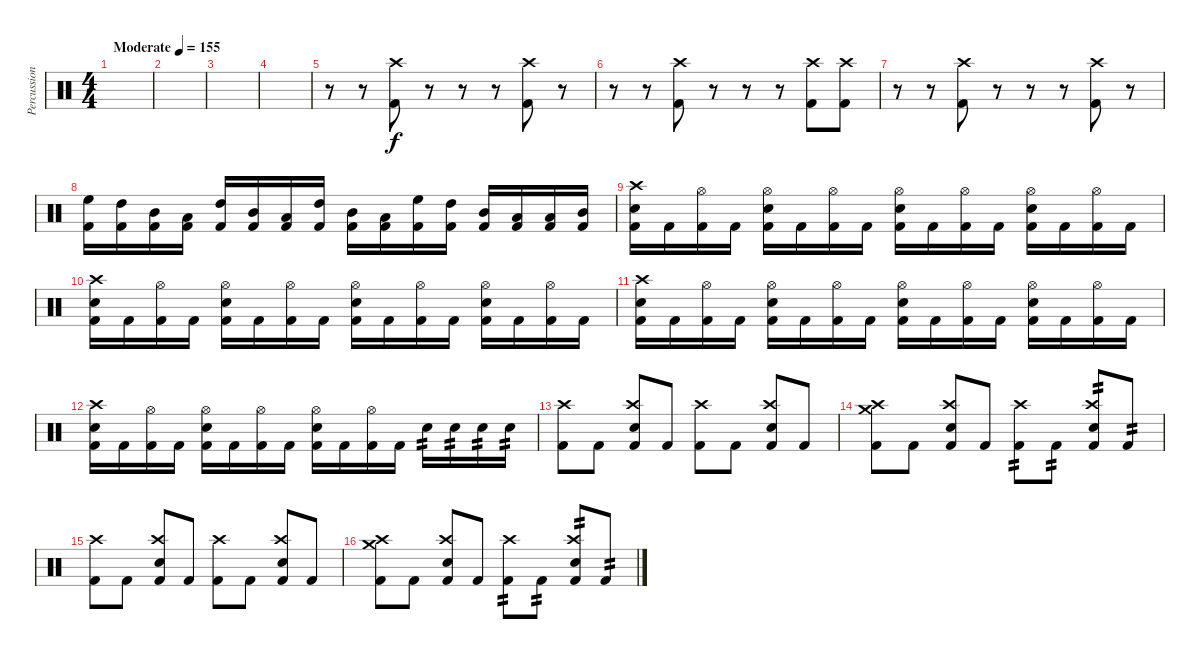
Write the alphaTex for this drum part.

\track ("Percussion" "Percussion") {instrument percussion}
\staff {score}
\articulation defaults
\ts (4 4)
\tempo (155 "Moderate")
\clef neutral
\ks c
|
|
|
|
r.8 r.8 ("Kick (hit) 2" "Crash high (hit)").8 r.8 r.8 r.8 ("Kick (hit) 2" "Crash high (hit)").8 r.8 |
r.8 r.8 ("Kick (hit) 2" "Crash high (hit)").8 r.8 r.8 r.8 ("Kick (hit) 2" "Crash high (hit)").8 ("Kick (hit) 2" "Crash high (hit)").8 |
r.8 r.8 ("Kick (hit) 2" "Crash high (hit)").8 r.8 r.8 r.8 ("Kick (hit) 2" "Crash high (hit)").8 r.8 |
("Kick (hit) 2" "High Floor Tom (hit)").16 ("Kick (hit) 2" "High Tom (hit)").16 ("Kick (hit) 2" "Mid Tom (hit)").16 ("Kick (hit) 2" "Low Tom (hit)").16 ("Kick (hit) 2" "High Tom (hit)").16 ("Kick (hit) 2" "Mid Tom (hit)").16 ("Kick (hit) 2" "Low Tom (hit)").16 ("Kick (hit) 2" "High Tom (hit)").16 ("Kick (hit) 2" "Mid Tom (hit)").16 ("Kick (hit) 2" "Low Tom (hit)").16 ("Kick (hit) 2" "High Floor Tom (hit)").16 ("Kick (hit) 2" "High Tom (hit)").16 ("Kick (hit) 2" "Mid Tom (hit)").16 ("Kick (hit) 2" "Low Tom (hit)").16 ("Kick (hit) 2" "Low Tom (hit)").16 ("Kick (hit) 2" "Mid Tom (hit)").16 |
("Kick (hit) 2" "Electric Snare (hit)" "Crash high (hit)").16 "Kick (hit) 2".16 ("Kick (hit) 2" "Hi-Hat (open)").16 "Kick (hit) 2".16 ("Kick (hit) 2" "Electric Snare (hit)" "Hi-Hat (open)").16 "Kick (hit) 2".16 ("Kick (hit) 2" "Hi-Hat (open)").16 "Kick (hit) 2".16 ("Kick (hit) 2" "Electric Snare (hit)" "Hi-Hat (open)").16 "Kick (hit) 2".16 ("Kick (hit) 2" "Hi-Hat (open)").16 "Kick (hit) 2".16 ("Kick (hit) 2" "Electric Snare (hit)" "Hi-Hat (open)").16 "Kick (hit) 2".16 ("Kick (hit) 2" "Hi-Hat (open)").16 "Kick (hit) 2".16 |
("Kick (hit) 2" "Electric Snare (hit)" "Crash high (hit)").16 "Kick (hit) 2".16 ("Kick (hit) 2" "Hi-Hat (open)").16 "Kick (hit) 2".16 ("Kick (hit) 2" "Electric Snare (hit)" "Hi-Hat (open)").16 "Kick (hit) 2".16 ("Kick (hit) 2" "Hi-Hat (open)").16 "Kick (hit) 2".16 ("Kick (hit) 2" "Electric Snare (hit)" "Hi-Hat (open)").16 "Kick (hit) 2".16 ("Kick (hit) 2" "Hi-Hat (open)").16 "Kick (hit) 2".16 ("Kick (hit) 2" "Electric Snare (hit)" "Hi-Hat (open)").16 "Kick (hit) 2".16 ("Kick (hit) 2" "Hi-Hat (open)").16 "Kick (hit) 2".16 |
("Kick (hit) 2" "Electric Snare (hit)" "Crash high (hit)").16 "Kick (hit) 2".16 ("Kick (hit) 2" "Hi-Hat (open)").16 "Kick (hit) 2".16 ("Kick (hit) 2" "Electric Snare (hit)" "Hi-Hat (open)").16 "Kick (hit) 2".16 ("Kick (hit) 2" "Hi-Hat (open)").16 "Kick (hit) 2".16 ("Kick (hit) 2" "Electric Snare (hit)" "Hi-Hat (open)").16 "Kick (hit) 2".16 ("Kick (hit) 2" "Hi-Hat (open)").16 "Kick (hit) 2".16 ("Kick (hit) 2" "Electric Snare (hit)" "Hi-Hat (open)").16 "Kick (hit) 2".16 ("Kick (hit) 2" "Hi-Hat (open)").16 "Kick (hit) 2".16 |
("Kick (hit) 2" "Electric Snare (hit)" "Crash high (hit)").16 "Kick (hit) 2".16 ("Kick (hit) 2" "Hi-Hat (open)").16 "Kick (hit) 2".16 ("Kick (hit) 2" "Electric Snare (hit)" "Hi-Hat (open)").16 "Kick (hit) 2".16 ("Kick (hit) 2" "Hi-Hat (open)").16 "Kick (hit) 2".16 ("Kick (hit) 2" "Electric Snare (hit)" "Hi-Hat (open)").16 "Kick (hit) 2".16 ("Kick (hit) 2" "Hi-Hat (open)").16 "Kick (hit) 2".16 "Electric Snare (hit)".16{tp 2} "Electric Snare (hit)".16{tp 2} "Electric Snare (hit)".16{tp 2} "Electric Snare (hit)".16{tp 2} |
("Crash high (hit)" "Kick (hit) 2").8 "Kick (hit) 2".8 ("Crash high (hit)" "Electric Snare (hit)" "Kick (hit) 2").8 "Kick (hit) 2".8 ("Crash high (hit)" "Kick (hit) 2").8 "Kick (hit) 2".8 ("Crash high (hit)" "Electric Snare (hit)" "Kick (hit) 2").8 "Kick (hit) 2".8 |
("Crash medium (hit)" "Kick (hit) 2" "Crash high (hit)").8 "Kick (hit) 2".8 ("Kick (hit) 2" "Electric Snare (hit)" "Crash high (hit)").8 "Kick (hit) 2".8 ("Kick (hit) 2" "Crash high (hit)").8{tp 2} "Kick (hit) 2".8{tp 2} ("Kick (hit) 2" "Electric Snare (hit)" "Crash high (hit)").8{tp 2} "Kick (hit) 2".8{tp 2} |
("Crash high (hit)" "Kick (hit) 2").8 "Kick (hit) 2".8 ("Crash high (hit)" "Electric Snare (hit)" "Kick (hit) 2").8 "Kick (hit) 2".8 ("Crash high (hit)" "Kick (hit) 2").8 "Kick (hit) 2".8 ("Crash high (hit)" "Electric Snare (hit)" "Kick (hit) 2").8 "Kick (hit) 2".8 |
("Crash medium (hit)" "Kick (hit) 2" "Crash high (hit)").8 "Kick (hit) 2".8 ("Kick (hit) 2" "Electric Snare (hit)" "Crash high (hit)").8 "Kick (hit) 2".8 ("Kick (hit) 2" "Crash high (hit)").8{tp 2} "Kick (hit) 2".8{tp 2} ("Kick (hit) 2" "Electric Snare (hit)" "Crash high (hit)").8{tp 2} "Kick (hit) 2".8{tp 2}
